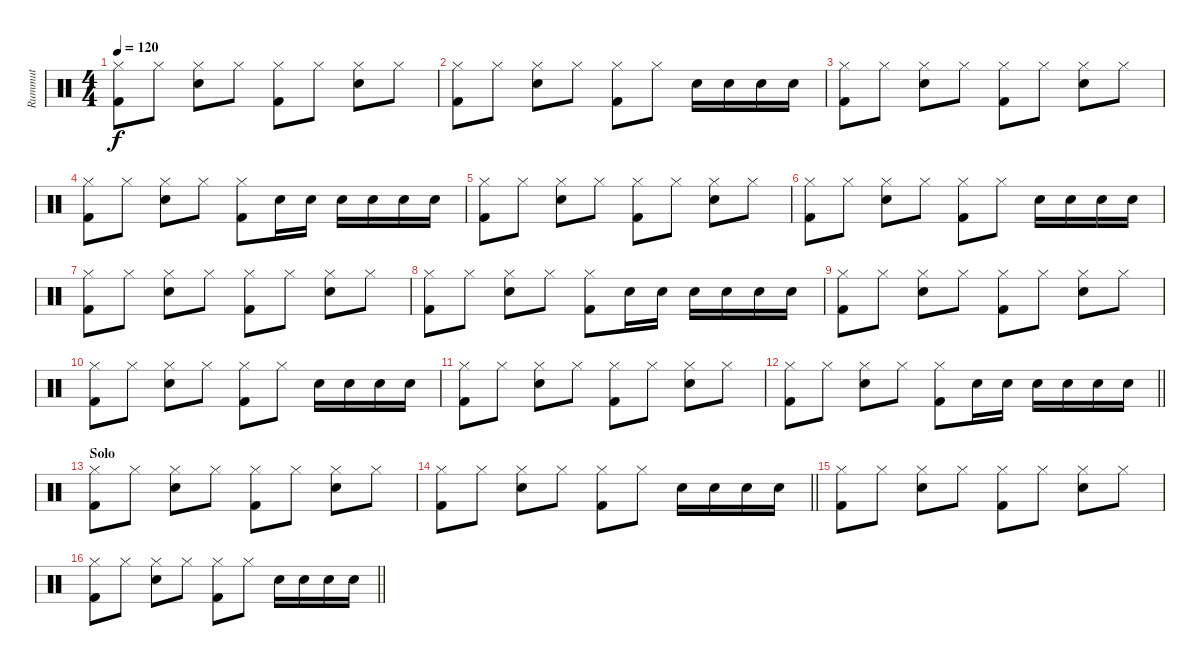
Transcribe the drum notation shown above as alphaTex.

\track ("Rummut" "Rummut") {instrument percussion}
\staff {score}
\articulation defaults
\ts (4 4)
\tempo 120
\clef neutral
\ks c
("Hi-Hat (closed)" "Kick (hit) 2").8{dy f} "Hi-Hat (closed)".8 ("Hi-Hat (closed)" "Electric Snare (hit)").8 "Hi-Hat (closed)".8 ("Hi-Hat (closed)" "Kick (hit) 2").8 "Hi-Hat (closed)".8 ("Hi-Hat (closed)" "Electric Snare (hit)").8 "Hi-Hat (closed)".8 |
("Hi-Hat (closed)" "Kick (hit) 2").8 "Hi-Hat (closed)".8 ("Hi-Hat (closed)" "Electric Snare (hit)").8 "Hi-Hat (closed)".8 ("Hi-Hat (closed)" "Kick (hit) 2").8 "Hi-Hat (closed)".8 "Electric Snare (hit)".16 "Electric Snare (hit)".16 "Electric Snare (hit)".16 "Electric Snare (hit)".16 |
("Hi-Hat (closed)" "Kick (hit) 2").8 "Hi-Hat (closed)".8 ("Hi-Hat (closed)" "Electric Snare (hit)").8 "Hi-Hat (closed)".8 ("Hi-Hat (closed)" "Kick (hit) 2").8 "Hi-Hat (closed)".8 ("Hi-Hat (closed)" "Electric Snare (hit)").8 "Hi-Hat (closed)".8 |
("Hi-Hat (closed)" "Kick (hit) 2").8 "Hi-Hat (closed)".8 ("Hi-Hat (closed)" "Electric Snare (hit)").8 "Hi-Hat (closed)".8 ("Hi-Hat (closed)" "Kick (hit) 2").8 "Electric Snare (hit)".16 "Electric Snare (hit)".16 "Electric Snare (hit)".16 "Electric Snare (hit)".16 "Electric Snare (hit)".16 "Electric Snare (hit)".16 |
("Hi-Hat (closed)" "Kick (hit) 2").8 "Hi-Hat (closed)".8 ("Hi-Hat (closed)" "Electric Snare (hit)").8 "Hi-Hat (closed)".8 ("Hi-Hat (closed)" "Kick (hit) 2").8 "Hi-Hat (closed)".8 ("Hi-Hat (closed)" "Electric Snare (hit)").8 "Hi-Hat (closed)".8 |
("Hi-Hat (closed)" "Kick (hit) 2").8 "Hi-Hat (closed)".8 ("Hi-Hat (closed)" "Electric Snare (hit)").8 "Hi-Hat (closed)".8 ("Hi-Hat (closed)" "Kick (hit) 2").8 "Hi-Hat (closed)".8 "Electric Snare (hit)".16 "Electric Snare (hit)".16 "Electric Snare (hit)".16 "Electric Snare (hit)".16 |
("Hi-Hat (closed)" "Kick (hit) 2").8 "Hi-Hat (closed)".8 ("Hi-Hat (closed)" "Electric Snare (hit)").8 "Hi-Hat (closed)".8 ("Hi-Hat (closed)" "Kick (hit) 2").8 "Hi-Hat (closed)".8 ("Hi-Hat (closed)" "Electric Snare (hit)").8 "Hi-Hat (closed)".8 |
("Hi-Hat (closed)" "Kick (hit) 2").8 "Hi-Hat (closed)".8 ("Hi-Hat (closed)" "Electric Snare (hit)").8 "Hi-Hat (closed)".8 ("Hi-Hat (closed)" "Kick (hit) 2").8 "Electric Snare (hit)".16 "Electric Snare (hit)".16 "Electric Snare (hit)".16 "Electric Snare (hit)".16 "Electric Snare (hit)".16 "Electric Snare (hit)".16 |
("Hi-Hat (closed)" "Kick (hit) 2").8 "Hi-Hat (closed)".8 ("Hi-Hat (closed)" "Electric Snare (hit)").8 "Hi-Hat (closed)".8 ("Hi-Hat (closed)" "Kick (hit) 2").8 "Hi-Hat (closed)".8 ("Hi-Hat (closed)" "Electric Snare (hit)").8 "Hi-Hat (closed)".8 |
("Hi-Hat (closed)" "Kick (hit) 2").8 "Hi-Hat (closed)".8 ("Hi-Hat (closed)" "Electric Snare (hit)").8 "Hi-Hat (closed)".8 ("Hi-Hat (closed)" "Kick (hit) 2").8 "Hi-Hat (closed)".8 "Electric Snare (hit)".16 "Electric Snare (hit)".16 "Electric Snare (hit)".16 "Electric Snare (hit)".16 |
("Hi-Hat (closed)" "Kick (hit) 2").8 "Hi-Hat (closed)".8 ("Hi-Hat (closed)" "Electric Snare (hit)").8 "Hi-Hat (closed)".8 ("Hi-Hat (closed)" "Kick (hit) 2").8 "Hi-Hat (closed)".8 ("Hi-Hat (closed)" "Electric Snare (hit)").8 "Hi-Hat (closed)".8 |
\barLineRight lightlight
("Hi-Hat (closed)" "Kick (hit) 2").8 "Hi-Hat (closed)".8 ("Hi-Hat (closed)" "Electric Snare (hit)").8 "Hi-Hat (closed)".8 ("Hi-Hat (closed)" "Kick (hit) 2").8 "Electric Snare (hit)".16 "Electric Snare (hit)".16 "Electric Snare (hit)".16 "Electric Snare (hit)".16 "Electric Snare (hit)".16 "Electric Snare (hit)".16 |
\section ("" "Solo")
("Hi-Hat (closed)" "Kick (hit) 2").8 "Hi-Hat (closed)".8 ("Hi-Hat (closed)" "Electric Snare (hit)").8 "Hi-Hat (closed)".8 ("Hi-Hat (closed)" "Kick (hit) 2").8 "Hi-Hat (closed)".8 ("Hi-Hat (closed)" "Electric Snare (hit)").8 "Hi-Hat (closed)".8 |
\barLineRight lightlight
("Hi-Hat (closed)" "Kick (hit) 2").8 "Hi-Hat (closed)".8 ("Hi-Hat (closed)" "Electric Snare (hit)").8 "Hi-Hat (closed)".8 ("Hi-Hat (closed)" "Kick (hit) 2").8 "Hi-Hat (closed)".8 "Electric Snare (hit)".16 "Electric Snare (hit)".16 "Electric Snare (hit)".16 "Electric Snare (hit)".16 |
("Hi-Hat (closed)" "Kick (hit) 2").8 "Hi-Hat (closed)".8 ("Hi-Hat (closed)" "Electric Snare (hit)").8 "Hi-Hat (closed)".8 ("Hi-Hat (closed)" "Kick (hit) 2").8 "Hi-Hat (closed)".8 ("Hi-Hat (closed)" "Electric Snare (hit)").8 "Hi-Hat (closed)".8 |
\barLineRight lightlight
("Hi-Hat (closed)" "Kick (hit) 2").8 "Hi-Hat (closed)".8 ("Hi-Hat (closed)" "Electric Snare (hit)").8 "Hi-Hat (closed)".8 ("Hi-Hat (closed)" "Kick (hit) 2").8 "Hi-Hat (closed)".8 "Electric Snare (hit)".16 "Electric Snare (hit)".16 "Electric Snare (hit)".16 "Electric Snare (hit)".16
